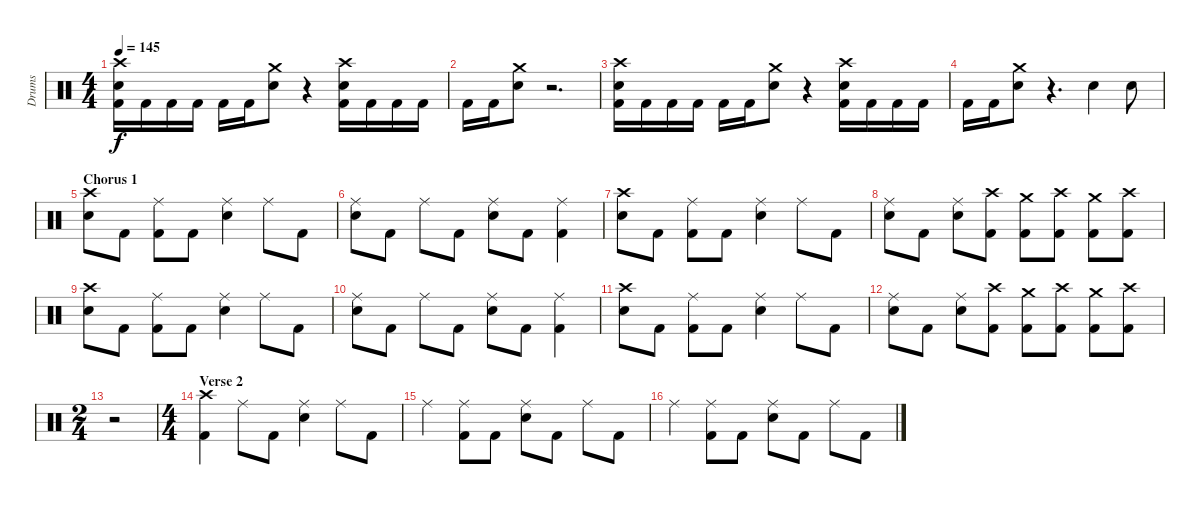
\track ("Drums" "Drums") {instrument percussion}
\staff {score}
\articulation defaults
\ts (4 4)
\tempo 145
\clef neutral
\ks c
("Crash high (hit)" "Snare (hit) 2" "Kick (hit) 2").16{dy f} "Kick (hit) 2".16 "Kick (hit) 2".16 "Kick (hit) 2".16 "Kick (hit) 2".16 "Kick (hit) 2".16 ("Crash medium (hit)" "Snare (hit) 2").8 r.4 ("Crash high (hit)" "Snare (hit) 2" "Kick (hit) 2").16 "Kick (hit) 2".16 "Kick (hit) 2".16 "Kick (hit) 2".16 |
"Kick (hit) 2".16 "Kick (hit) 2".16 ("Crash medium (hit)" "Snare (hit) 2").8 r.2{d} |
("Crash high (hit)" "Snare (hit) 2" "Kick (hit) 2").16 "Kick (hit) 2".16 "Kick (hit) 2".16 "Kick (hit) 2".16 "Kick (hit) 2".16 "Kick (hit) 2".16 ("Crash medium (hit)" "Snare (hit) 2").8 r.4 ("Crash high (hit)" "Snare (hit) 2" "Kick (hit) 2").16 "Kick (hit) 2".16 "Kick (hit) 2".16 "Kick (hit) 2".16 |
"Kick (hit) 2".16 "Kick (hit) 2".16 ("Crash medium (hit)" "Snare (hit) 2").8 r.4{d} "Snare (hit) 2".4 "Snare (hit) 2".8 |
\section ("" "Chorus 1")
("Crash high (hit)" "Snare (hit) 2").8 "Kick (hit) 2".8 ("Ride (middle)" "Kick (hit) 2").8 "Kick (hit) 2".8 ("Ride (middle)" "Snare (hit) 2").4 "Ride (middle)".8 "Kick (hit) 2".8 |
("Ride (middle)" "Snare (hit) 2").8 "Kick (hit) 2".8 "Ride (middle)".8 "Kick (hit) 2".8 ("Ride (middle)" "Snare (hit) 2").8 "Kick (hit) 2".8 ("Ride (middle)" "Kick (hit) 2").4 |
("Crash high (hit)" "Snare (hit) 2").8 "Kick (hit) 2".8 ("Ride (middle)" "Kick (hit) 2").8 "Kick (hit) 2".8 ("Ride (middle)" "Snare (hit) 2").4 "Ride (middle)".8 "Kick (hit) 2".8 |
("Ride (middle)" "Snare (hit) 2").8 "Kick (hit) 2".8 ("Ride (middle)" "Snare (hit) 2").8 ("Crash high (hit)" "Kick (hit) 2").8 ("Crash medium (hit)" "Kick (hit) 2").8 ("Crash high (hit)" "Kick (hit) 2").8 ("Crash medium (hit)" "Kick (hit) 2").8 ("Crash high (hit)" "Kick (hit) 2").8 |
("Crash high (hit)" "Snare (hit) 2").8 "Kick (hit) 2".8 ("Ride (middle)" "Kick (hit) 2").8 "Kick (hit) 2".8 ("Ride (middle)" "Snare (hit) 2").4 "Ride (middle)".8 "Kick (hit) 2".8 |
("Ride (middle)" "Snare (hit) 2").8 "Kick (hit) 2".8 "Ride (middle)".8 "Kick (hit) 2".8 ("Ride (middle)" "Snare (hit) 2").8 "Kick (hit) 2".8 ("Ride (middle)" "Kick (hit) 2").4 |
("Crash high (hit)" "Snare (hit) 2").8 "Kick (hit) 2".8 ("Ride (middle)" "Kick (hit) 2").8 "Kick (hit) 2".8 ("Ride (middle)" "Snare (hit) 2").4 "Ride (middle)".8 "Kick (hit) 2".8 |
("Ride (middle)" "Snare (hit) 2").8 "Kick (hit) 2".8 ("Ride (middle)" "Snare (hit) 2").8 ("Crash high (hit)" "Kick (hit) 2").8 ("Crash medium (hit)" "Kick (hit) 2").8 ("Crash high (hit)" "Kick (hit) 2").8 ("Crash medium (hit)" "Kick (hit) 2").8 ("Crash high (hit)" "Kick (hit) 2").8 |
\ts (2 4)
r.2 |
\ts (4 4)
\section ("" "Verse 2")
("Crash high (hit)" "Kick (hit) 2").4 "Ride (middle)".8 "Kick (hit) 2".8 ("Ride (middle)" "Snare (hit) 2").4 "Ride (middle)".8 "Kick (hit) 2".8 |
"Ride (middle)".4 ("Ride (middle)" "Kick (hit) 2").8 "Kick (hit) 2".8 ("Ride (middle)" "Snare (hit) 2").8 "Kick (hit) 2".8 "Ride (middle)".8 "Kick (hit) 2".8 |
"Ride (middle)".4 ("Ride (middle)" "Kick (hit) 2").8 "Kick (hit) 2".8 ("Ride (middle)" "Snare (hit) 2").8 "Kick (hit) 2".8 "Ride (middle)".8 "Kick (hit) 2".8
